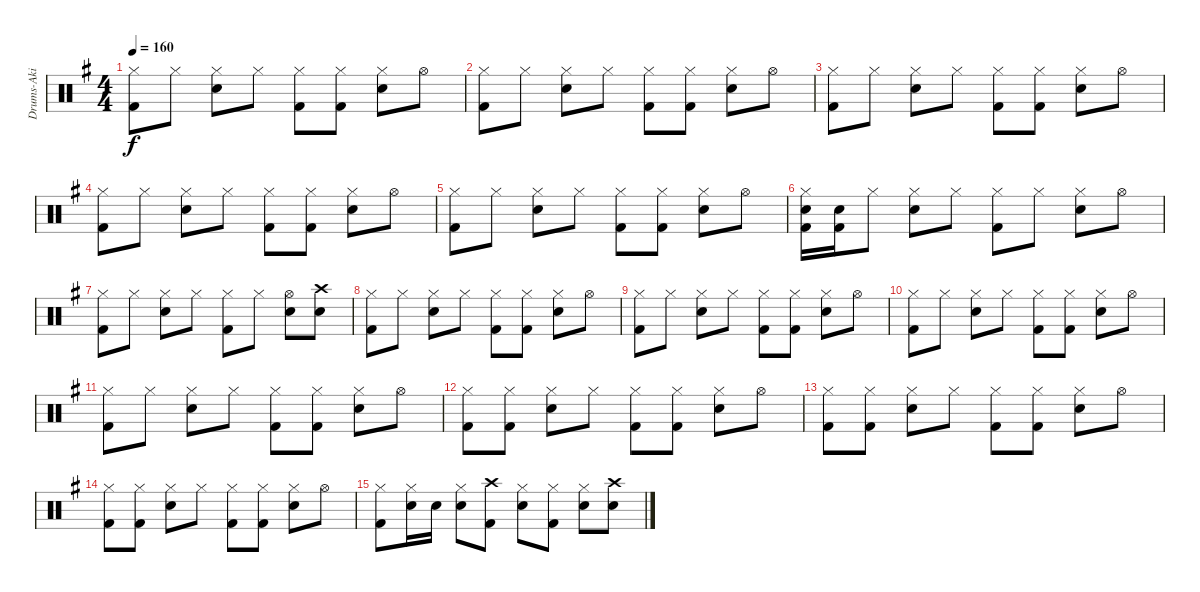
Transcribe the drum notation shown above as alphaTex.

\track ("Drums-Aki" "Drums-Aki") {instrument percussion}
\staff {score}
\articulation defaults
\ts (4 4)
\tempo 160
\clef neutral
\ks g
("Hi-Hat (closed)" "Kick (hit) 2").8{dy f} "Hi-Hat (closed)".8 ("Hi-Hat (closed)" "Electric Snare (hit)").8 "Hi-Hat (closed)".8 ("Hi-Hat (closed)" "Kick (hit) 2").8 ("Hi-Hat (closed)" "Kick (hit) 2").8 ("Hi-Hat (closed)" "Electric Snare (hit)").8 "Hi-Hat (open)".8 |
("Hi-Hat (closed)" "Kick (hit) 2").8 "Hi-Hat (closed)".8 ("Hi-Hat (closed)" "Electric Snare (hit)").8 "Hi-Hat (closed)".8 ("Hi-Hat (closed)" "Kick (hit) 2").8 ("Hi-Hat (closed)" "Kick (hit) 2").8 ("Hi-Hat (closed)" "Electric Snare (hit)").8 "Hi-Hat (open)".8 |
("Hi-Hat (closed)" "Kick (hit) 2").8 "Hi-Hat (closed)".8 ("Hi-Hat (closed)" "Electric Snare (hit)").8 "Hi-Hat (closed)".8 ("Hi-Hat (closed)" "Kick (hit) 2").8 ("Hi-Hat (closed)" "Kick (hit) 2").8 ("Hi-Hat (closed)" "Electric Snare (hit)").8 "Hi-Hat (open)".8 |
("Hi-Hat (closed)" "Kick (hit) 2").8 "Hi-Hat (closed)".8 ("Hi-Hat (closed)" "Electric Snare (hit)").8 "Hi-Hat (closed)".8 ("Hi-Hat (closed)" "Kick (hit) 2").8 ("Hi-Hat (closed)" "Kick (hit) 2").8 ("Hi-Hat (closed)" "Electric Snare (hit)").8 "Hi-Hat (open)".8 |
("Hi-Hat (closed)" "Kick (hit) 2").8 "Hi-Hat (closed)".8 ("Hi-Hat (closed)" "Electric Snare (hit)").8 "Hi-Hat (closed)".8 ("Hi-Hat (closed)" "Kick (hit) 2").8 ("Hi-Hat (closed)" "Kick (hit) 2").8 ("Hi-Hat (closed)" "Electric Snare (hit)").8 "Hi-Hat (open)".8 |
("Hi-Hat (closed)" "Electric Snare (hit)" "Kick (hit) 2").16 ("Electric Snare (hit)" "Kick (hit) 2").16 "Hi-Hat (closed)".8 ("Hi-Hat (closed)" "Electric Snare (hit)").8 "Hi-Hat (closed)".8 ("Hi-Hat (closed)" "Kick (hit) 2").8 "Hi-Hat (closed)".8 ("Hi-Hat (closed)" "Electric Snare (hit)").8 "Hi-Hat (open)".8 |
("Hi-Hat (closed)" "Kick (hit) 2").8 "Hi-Hat (closed)".8 ("Hi-Hat (closed)" "Electric Snare (hit)").8 "Hi-Hat (closed)".8 ("Hi-Hat (closed)" "Kick (hit) 2").8 "Hi-Hat (closed)".8 ("Hi-Hat (open)" "Electric Snare (hit)").8 ("Crash high (hit)" "Electric Snare (hit)").8 |
("Hi-Hat (closed)" "Kick (hit) 2").8 "Hi-Hat (closed)".8 ("Hi-Hat (closed)" "Electric Snare (hit)").8 "Hi-Hat (closed)".8 ("Hi-Hat (closed)" "Kick (hit) 2").8 ("Hi-Hat (closed)" "Kick (hit) 2").8 ("Hi-Hat (closed)" "Electric Snare (hit)").8 "Hi-Hat (open)".8 |
("Hi-Hat (closed)" "Kick (hit) 2").8 "Hi-Hat (closed)".8 ("Hi-Hat (closed)" "Electric Snare (hit)").8 "Hi-Hat (closed)".8 ("Hi-Hat (closed)" "Kick (hit) 2").8 ("Hi-Hat (closed)" "Kick (hit) 2").8 ("Hi-Hat (closed)" "Electric Snare (hit)").8 "Hi-Hat (open)".8 |
("Hi-Hat (closed)" "Kick (hit) 2").8 "Hi-Hat (closed)".8 ("Hi-Hat (closed)" "Electric Snare (hit)").8 "Hi-Hat (closed)".8 ("Hi-Hat (closed)" "Kick (hit) 2").8 ("Hi-Hat (closed)" "Kick (hit) 2").8 ("Hi-Hat (closed)" "Electric Snare (hit)").8 "Hi-Hat (open)".8 |
("Hi-Hat (closed)" "Kick (hit) 2").8 "Hi-Hat (closed)".8 ("Hi-Hat (closed)" "Electric Snare (hit)").8 "Hi-Hat (closed)".8 ("Hi-Hat (closed)" "Kick (hit) 2").8 ("Hi-Hat (closed)" "Kick (hit) 2").8 ("Hi-Hat (closed)" "Electric Snare (hit)").8 "Hi-Hat (open)".8 |
("Hi-Hat (closed)" "Kick (hit) 2").8 ("Hi-Hat (closed)" "Kick (hit) 2").8 ("Hi-Hat (closed)" "Electric Snare (hit)").8 "Hi-Hat (closed)".8 ("Hi-Hat (closed)" "Kick (hit) 2").8 ("Hi-Hat (closed)" "Kick (hit) 2").8 ("Hi-Hat (closed)" "Electric Snare (hit)").8 "Hi-Hat (open)".8 |
("Hi-Hat (closed)" "Kick (hit) 2").8 ("Hi-Hat (closed)" "Kick (hit) 2").8 ("Hi-Hat (closed)" "Electric Snare (hit)").8 "Hi-Hat (closed)".8 ("Hi-Hat (closed)" "Kick (hit) 2").8 ("Hi-Hat (closed)" "Kick (hit) 2").8 ("Hi-Hat (closed)" "Electric Snare (hit)").8 "Hi-Hat (open)".8 |
("Hi-Hat (closed)" "Kick (hit) 2").8 ("Hi-Hat (closed)" "Kick (hit) 2").8 ("Hi-Hat (closed)" "Electric Snare (hit)").8 "Hi-Hat (closed)".8 ("Hi-Hat (closed)" "Kick (hit) 2").8 ("Hi-Hat (closed)" "Kick (hit) 2").8 ("Hi-Hat (closed)" "Electric Snare (hit)").8 "Hi-Hat (open)".8 |
("Hi-Hat (closed)" "Kick (hit) 2").8 ("Hi-Hat (closed)" "Electric Snare (hit)").16 "Electric Snare (hit)".16 ("Hi-Hat (closed)" "Electric Snare (hit)").8 ("Crash high (hit)" "Kick (hit) 2").8 ("Hi-Hat (closed)" "Electric Snare (hit)").8 ("Hi-Hat (closed)" "Kick (hit) 2").8 ("Hi-Hat (closed)" "Electric Snare (hit)").8 ("Crash high (hit)" "Electric Snare (hit)").8
